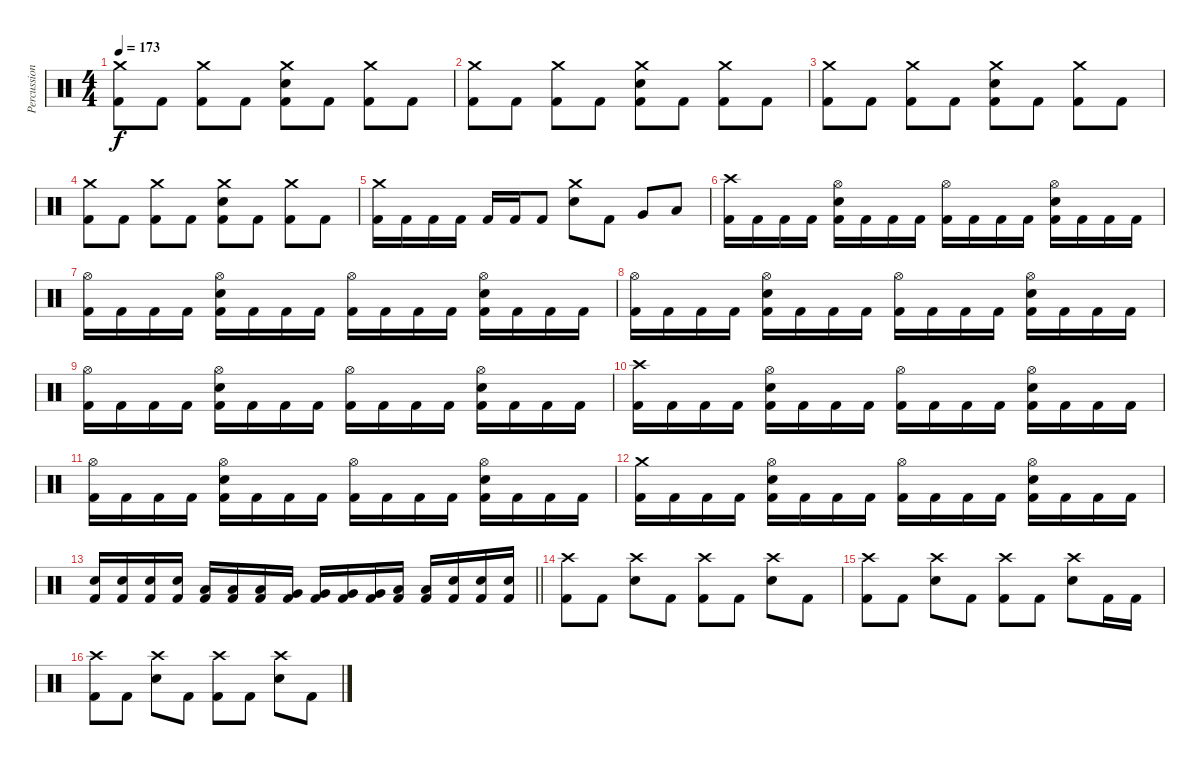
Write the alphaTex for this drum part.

\track ("Percussion" "Percussion") {instrument percussion}
\staff {score}
\articulation defaults
\ts (4 4)
\tempo 173
\clef neutral
\ks c
("Crash medium (hit)" "Kick (hit) 2").8{dy f} "Kick (hit) 2".8 ("Crash medium (hit)" "Kick (hit) 2").8 "Kick (hit) 2".8 ("Crash medium (hit)" "Electric Snare (hit)" "Kick (hit) 2").8 "Kick (hit) 2".8 ("Crash medium (hit)" "Kick (hit) 2").8 "Kick (hit) 2".8 |
("Crash medium (hit)" "Kick (hit) 2").8 "Kick (hit) 2".8 ("Crash medium (hit)" "Kick (hit) 2").8 "Kick (hit) 2".8 ("Crash medium (hit)" "Electric Snare (hit)" "Kick (hit) 2").8 "Kick (hit) 2".8 ("Crash medium (hit)" "Kick (hit) 2").8 "Kick (hit) 2".8 |
("Crash medium (hit)" "Kick (hit) 2").8 "Kick (hit) 2".8 ("Crash medium (hit)" "Kick (hit) 2").8 "Kick (hit) 2".8 ("Crash medium (hit)" "Electric Snare (hit)" "Kick (hit) 2").8 "Kick (hit) 2".8 ("Crash medium (hit)" "Kick (hit) 2").8 "Kick (hit) 2".8 |
("Crash medium (hit)" "Kick (hit) 2").8 "Kick (hit) 2".8 ("Crash medium (hit)" "Kick (hit) 2").8 "Kick (hit) 2".8 ("Crash medium (hit)" "Electric Snare (hit)" "Kick (hit) 2").8 "Kick (hit) 2".8 ("Crash medium (hit)" "Kick (hit) 2").8 "Kick (hit) 2".8 |
("Crash medium (hit)" "Kick (hit) 2").16 "Kick (hit) 2".16 "Kick (hit) 2".16 "Kick (hit) 2".16 "Kick (hit) 2".16 "Kick (hit) 2".16 "Kick (hit) 2".8 ("Crash medium (hit)" "Electric Snare (hit)").8 "Kick (hit) 2".8 "Very Low Tom (hit)".8 "Low Floor Tom (hit)".8 |
("Crash high (hit)" "Kick (hit) 2").16 "Kick (hit) 2".16 "Kick (hit) 2".16 "Kick (hit) 2".16 ("Hi-Hat (open)" "Electric Snare (hit)" "Kick (hit) 2").16 "Kick (hit) 2".16 "Kick (hit) 2".16 "Kick (hit) 2".16 ("Hi-Hat (open)" "Kick (hit) 2").16 "Kick (hit) 2".16 "Kick (hit) 2".16 "Kick (hit) 2".16 ("Hi-Hat (open)" "Electric Snare (hit)" "Kick (hit) 2").16 "Kick (hit) 2".16 "Kick (hit) 2".16 "Kick (hit) 2".16 |
("Hi-Hat (open)" "Kick (hit) 2").16 "Kick (hit) 2".16 "Kick (hit) 2".16 "Kick (hit) 2".16 ("Hi-Hat (open)" "Electric Snare (hit)" "Kick (hit) 2").16 "Kick (hit) 2".16 "Kick (hit) 2".16 "Kick (hit) 2".16 ("Hi-Hat (open)" "Kick (hit) 2").16 "Kick (hit) 2".16 "Kick (hit) 2".16 "Kick (hit) 2".16 ("Hi-Hat (open)" "Electric Snare (hit)" "Kick (hit) 2").16 "Kick (hit) 2".16 "Kick (hit) 2".16 "Kick (hit) 2".16 |
("Hi-Hat (open)" "Kick (hit) 2").16 "Kick (hit) 2".16 "Kick (hit) 2".16 "Kick (hit) 2".16 ("Hi-Hat (open)" "Electric Snare (hit)" "Kick (hit) 2").16 "Kick (hit) 2".16 "Kick (hit) 2".16 "Kick (hit) 2".16 ("Hi-Hat (open)" "Kick (hit) 2").16 "Kick (hit) 2".16 "Kick (hit) 2".16 "Kick (hit) 2".16 ("Hi-Hat (open)" "Electric Snare (hit)" "Kick (hit) 2").16 "Kick (hit) 2".16 "Kick (hit) 2".16 "Kick (hit) 2".16 |
("Hi-Hat (open)" "Kick (hit) 2").16 "Kick (hit) 2".16 "Kick (hit) 2".16 "Kick (hit) 2".16 ("Hi-Hat (open)" "Electric Snare (hit)" "Kick (hit) 2").16 "Kick (hit) 2".16 "Kick (hit) 2".16 "Kick (hit) 2".16 ("Hi-Hat (open)" "Kick (hit) 2").16 "Kick (hit) 2".16 "Kick (hit) 2".16 "Kick (hit) 2".16 ("Hi-Hat (open)" "Electric Snare (hit)" "Kick (hit) 2").16 "Kick (hit) 2".16 "Kick (hit) 2".16 "Kick (hit) 2".16 |
("Crash high (hit)" "Kick (hit) 2").16 "Kick (hit) 2".16 "Kick (hit) 2".16 "Kick (hit) 2".16 ("Hi-Hat (open)" "Electric Snare (hit)" "Kick (hit) 2").16 "Kick (hit) 2".16 "Kick (hit) 2".16 "Kick (hit) 2".16 ("Hi-Hat (open)" "Kick (hit) 2").16 "Kick (hit) 2".16 "Kick (hit) 2".16 "Kick (hit) 2".16 ("Hi-Hat (open)" "Electric Snare (hit)" "Kick (hit) 2").16 "Kick (hit) 2".16 "Kick (hit) 2".16 "Kick (hit) 2".16 |
("Hi-Hat (open)" "Kick (hit) 2").16 "Kick (hit) 2".16 "Kick (hit) 2".16 "Kick (hit) 2".16 ("Hi-Hat (open)" "Electric Snare (hit)" "Kick (hit) 2").16 "Kick (hit) 2".16 "Kick (hit) 2".16 "Kick (hit) 2".16 ("Hi-Hat (open)" "Kick (hit) 2").16 "Kick (hit) 2".16 "Kick (hit) 2".16 "Kick (hit) 2".16 ("Hi-Hat (open)" "Electric Snare (hit)" "Kick (hit) 2").16 "Kick (hit) 2".16 "Kick (hit) 2".16 "Kick (hit) 2".16 |
("Crash medium (hit)" "Kick (hit) 2").16 "Kick (hit) 2".16 "Kick (hit) 2".16 "Kick (hit) 2".16 ("Hi-Hat (open)" "Electric Snare (hit)" "Kick (hit) 2").16 "Kick (hit) 2".16 "Kick (hit) 2".16 "Kick (hit) 2".16 ("Hi-Hat (open)" "Kick (hit) 2").16 "Kick (hit) 2".16 "Kick (hit) 2".16 "Kick (hit) 2".16 ("Hi-Hat (open)" "Electric Snare (hit)" "Kick (hit) 2").16 "Kick (hit) 2".16 "Kick (hit) 2".16 "Kick (hit) 2".16 |
\barLineRight lightlight
("Electric Snare (hit)" "Kick (hit) 2").16 ("Electric Snare (hit)" "Kick (hit) 2").16 ("Electric Snare (hit)" "Kick (hit) 2").16 ("Electric Snare (hit)" "Kick (hit) 2").16 ("Low Tom (hit)" "Kick (hit) 2").16 ("Low Tom (hit)" "Kick (hit) 2").16 ("Low Tom (hit)" "Kick (hit) 2").16 ("Very Low Tom (hit)" "Kick (hit) 2").16 ("Very Low Tom (hit)" "Kick (hit) 2").16 ("Very Low Tom (hit)" "Kick (hit) 2").16 ("Very Low Tom (hit)" "Kick (hit) 2").16 ("Low Floor Tom (hit)" "Kick (hit) 2").16 ("Low Floor Tom (hit)" "Kick (hit) 2").16 ("Electric Snare (hit)" "Kick (hit) 2").16 ("Electric Snare (hit)" "Kick (hit) 2").16 ("Electric Snare (hit)" "Kick (hit) 2").16 |
("Crash high (hit)" "Kick (hit) 2").8 "Kick (hit) 2".8 ("Crash high (hit)" "Electric Snare (hit)").8 "Kick (hit) 2".8 ("Crash high (hit)" "Kick (hit) 2").8 "Kick (hit) 2".8 ("Crash high (hit)" "Electric Snare (hit)").8 "Kick (hit) 2".8 |
("Crash high (hit)" "Kick (hit) 2").8 "Kick (hit) 2".8 ("Crash high (hit)" "Electric Snare (hit)").8 "Kick (hit) 2".8 ("Crash high (hit)" "Kick (hit) 2").8 "Kick (hit) 2".8 ("Crash high (hit)" "Electric Snare (hit)").8 "Kick (hit) 2".16 "Kick (hit) 2".16 |
("Crash high (hit)" "Kick (hit) 2").8 "Kick (hit) 2".8 ("Crash high (hit)" "Electric Snare (hit)").8 "Kick (hit) 2".8 ("Crash high (hit)" "Kick (hit) 2").8 "Kick (hit) 2".8 ("Crash high (hit)" "Electric Snare (hit)").8 "Kick (hit) 2".8
